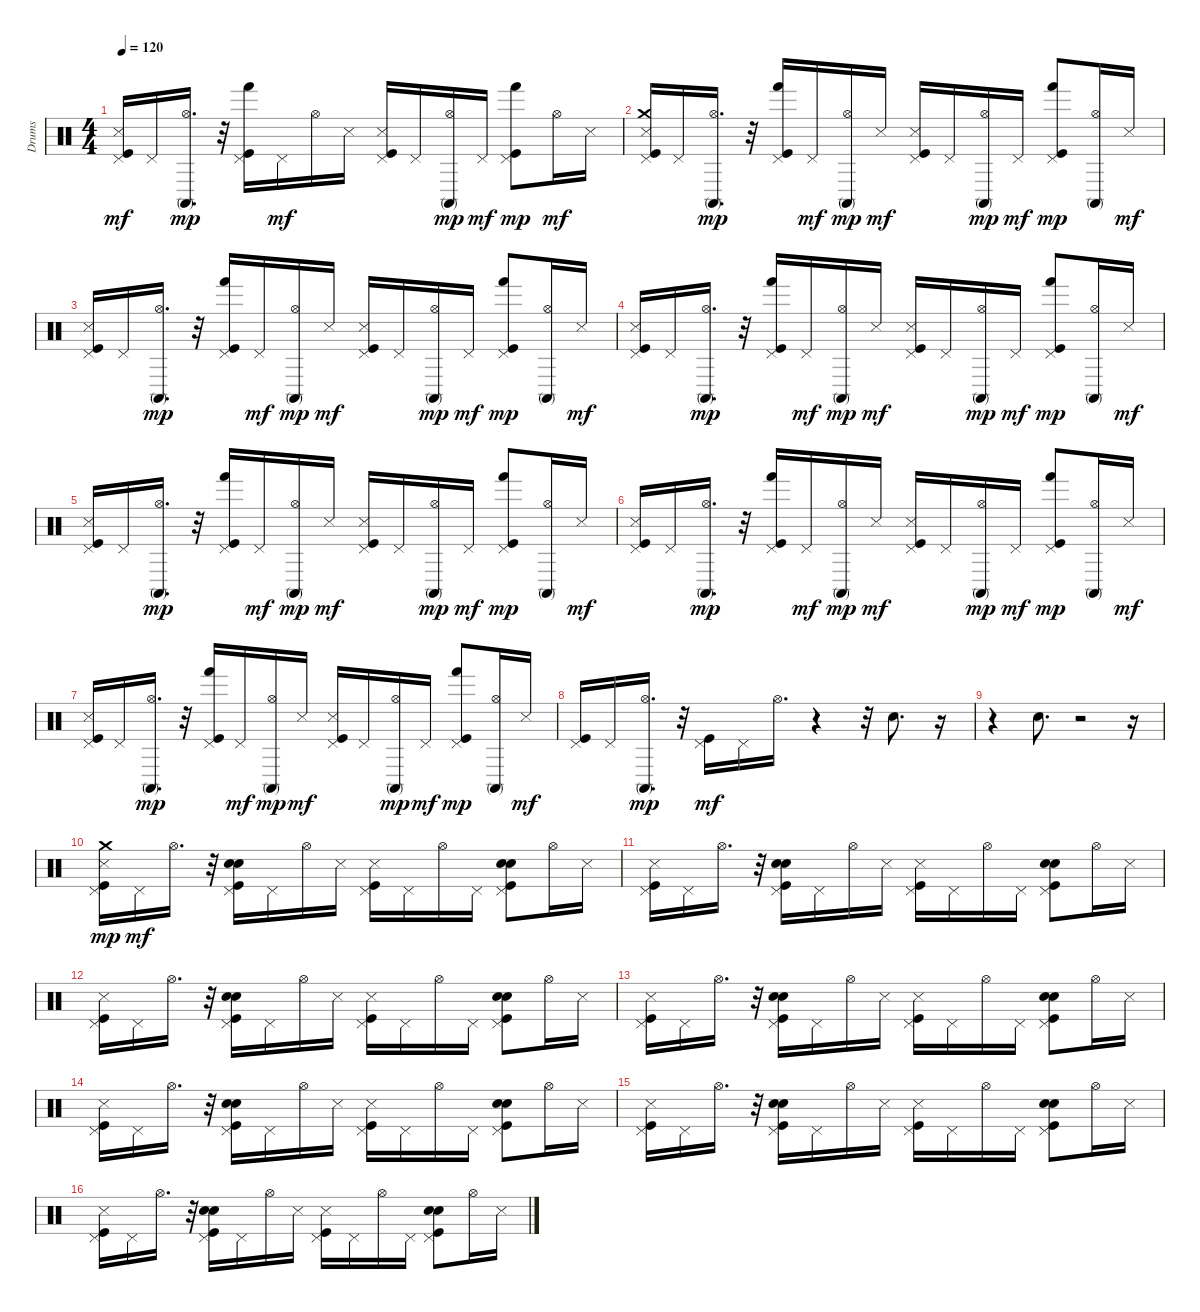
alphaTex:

\track ("Drums" "Drums") {instrument percussion}
\staff {score}
\articulation defaults
\ts (4 4)
\tempo 120
\clef neutral
\ks c
("Kick (hit)" "Snare (side stick) 3" "Pedal Hi-Hat (hit)").16{dy mf} "Pedal Hi-Hat (hit)".16 ("Hi-Hat (open)" "Conga high (mute)").16{d dy mp} r.32 ("Kick (hit)" "Pedal Hi-Hat (hit)" "Hand (hit)").16 "Pedal Hi-Hat (hit)".16{dy mf} "Hi-Hat (open)".16 "Snare (side stick) 3".16 ("Kick (hit)" "Pedal Hi-Hat (hit)" "Snare (side stick) 3").16 "Pedal Hi-Hat (hit)".16 ("Hi-Hat (open)" "Conga high (mute)").16{dy mp} "Pedal Hi-Hat (hit)".16{dy mf} ("Kick (hit)" "Pedal Hi-Hat (hit)" "Hand (hit)").8{dy mp} "Hi-Hat (open)".16{dy mf} "Snare (side stick) 3".16 |
("Pedal Hi-Hat (hit)" "Kick (hit)" "Snare (side stick) 3" "Crash medium (hit)").16 "Pedal Hi-Hat (hit)".16 ("Hi-Hat (open)" "Conga high (mute)").16{d dy mp} r.32 ("Pedal Hi-Hat (hit)" "Kick (hit)" "Hand (hit)").16 "Pedal Hi-Hat (hit)".16{dy mf} ("Hi-Hat (open)" "Conga high (mute)").16{dy mp} "Snare (side stick) 3".16{dy mf} ("Pedal Hi-Hat (hit)" "Snare (side stick) 3" "Kick (hit)").16 "Pedal Hi-Hat (hit)".16 ("Hi-Hat (open)" "Conga high (mute)").16{dy mp} "Pedal Hi-Hat (hit)".16{dy mf} ("Pedal Hi-Hat (hit)" "Kick (hit)" "Hand (hit)").8{dy mp} ("Hi-Hat (open)" "Conga high (mute)").16 "Snare (side stick) 3".16{dy mf} |
("Kick (hit)" "Snare (side stick) 3" "Pedal Hi-Hat (hit)").16 "Pedal Hi-Hat (hit)".16 ("Hi-Hat (open)" "Conga high (mute)").16{d dy mp} r.32 ("Kick (hit)" "Pedal Hi-Hat (hit)" "Hand (hit)").16 "Pedal Hi-Hat (hit)".16{dy mf} ("Hi-Hat (open)" "Conga high (mute)").16{dy mp} "Snare (side stick) 3".16{dy mf} ("Pedal Hi-Hat (hit)" "Snare (side stick) 3" "Kick (hit)").16 "Pedal Hi-Hat (hit)".16 ("Hi-Hat (open)" "Conga high (mute)").16{dy mp} "Pedal Hi-Hat (hit)".16{dy mf} ("Pedal Hi-Hat (hit)" "Kick (hit)" "Hand (hit)").8{dy mp} ("Hi-Hat (open)" "Conga high (mute)").16 "Snare (side stick) 3".16{dy mf} |
("Kick (hit)" "Snare (side stick) 3" "Pedal Hi-Hat (hit)").16 "Pedal Hi-Hat (hit)".16 ("Hi-Hat (open)" "Conga high (mute)").16{d dy mp} r.32 ("Kick (hit)" "Pedal Hi-Hat (hit)" "Hand (hit)").16 "Pedal Hi-Hat (hit)".16{dy mf} ("Hi-Hat (open)" "Conga high (mute)").16{dy mp} "Snare (side stick) 3".16{dy mf} ("Kick (hit)" "Pedal Hi-Hat (hit)" "Snare (side stick) 3").16 "Pedal Hi-Hat (hit)".16 ("Hi-Hat (open)" "Conga high (mute)").16{dy mp} "Pedal Hi-Hat (hit)".16{dy mf} ("Kick (hit)" "Pedal Hi-Hat (hit)" "Hand (hit)").8{dy mp} ("Hi-Hat (open)" "Conga high (mute)").16 "Snare (side stick) 3".16{dy mf} |
("Kick (hit)" "Snare (side stick) 3" "Pedal Hi-Hat (hit)").16 "Pedal Hi-Hat (hit)".16 ("Hi-Hat (open)" "Conga high (mute)").16{d dy mp} r.32 ("Kick (hit)" "Pedal Hi-Hat (hit)" "Hand (hit)").16 "Pedal Hi-Hat (hit)".16{dy mf} ("Hi-Hat (open)" "Conga high (mute)").16{dy mp} "Snare (side stick) 3".16{dy mf} ("Kick (hit)" "Pedal Hi-Hat (hit)" "Snare (side stick) 3").16 "Pedal Hi-Hat (hit)".16 ("Hi-Hat (open)" "Conga high (mute)").16{dy mp} "Pedal Hi-Hat (hit)".16{dy mf} ("Kick (hit)" "Pedal Hi-Hat (hit)" "Hand (hit)").8{dy mp} ("Hi-Hat (open)" "Conga high (mute)").16 "Snare (side stick) 3".16{dy mf} |
("Kick (hit)" "Snare (side stick) 3" "Pedal Hi-Hat (hit)").16 "Pedal Hi-Hat (hit)".16 ("Hi-Hat (open)" "Conga high (mute)").16{d dy mp} r.32 ("Kick (hit)" "Pedal Hi-Hat (hit)" "Hand (hit)").16 "Pedal Hi-Hat (hit)".16{dy mf} ("Hi-Hat (open)" "Conga high (mute)").16{dy mp} "Snare (side stick) 3".16{dy mf} ("Kick (hit)" "Pedal Hi-Hat (hit)" "Snare (side stick) 3").16 "Pedal Hi-Hat (hit)".16 ("Hi-Hat (open)" "Conga high (mute)").16{dy mp} "Pedal Hi-Hat (hit)".16{dy mf} ("Kick (hit)" "Pedal Hi-Hat (hit)" "Hand (hit)").8{dy mp} ("Hi-Hat (open)" "Conga high (mute)").16 "Snare (side stick) 3".16{dy mf} |
("Kick (hit)" "Snare (side stick) 3" "Pedal Hi-Hat (hit)").16 "Pedal Hi-Hat (hit)".16 ("Hi-Hat (open)" "Conga high (mute)").16{d dy mp} r.32 ("Kick (hit)" "Pedal Hi-Hat (hit)" "Hand (hit)").16 "Pedal Hi-Hat (hit)".16{dy mf} ("Hi-Hat (open)" "Conga high (mute)").16{dy mp} "Snare (side stick) 3".16{dy mf} ("Kick (hit)" "Pedal Hi-Hat (hit)" "Snare (side stick) 3").16 "Pedal Hi-Hat (hit)".16 ("Hi-Hat (open)" "Conga high (mute)").16{dy mp} "Pedal Hi-Hat (hit)".16{dy mf} ("Kick (hit)" "Pedal Hi-Hat (hit)" "Hand (hit)").8{dy mp} ("Hi-Hat (open)" "Conga high (mute)").16 "Snare (side stick) 3".16{dy mf} |
("Pedal Hi-Hat (hit)" "Kick (hit)").16 "Pedal Hi-Hat (hit)".16 ("Hi-Hat (open)" "Conga high (mute)").16{d dy mp} r.32 ("Pedal Hi-Hat (hit)" "Kick (hit)").16{dy mf} "Pedal Hi-Hat (hit)".16 "Hi-Hat (open)".16{d} r.4 r.32 "Hand Clap (hit)".8{d} r.16 |
r.4 "Hand Clap (hit)".8{d} r.2 r.16 |
("Snare (side stick) 3" "Pedal Hi-Hat (hit)" "Kick (hit)" "Crash medium (hit)").16{dy mp} "Pedal Hi-Hat (hit)".16{dy mf} "Hi-Hat (open)".16{d} r.32 ("Pedal Hi-Hat (hit)" "Hand Clap (hit)" "Snare (hit) 2" "Kick (hit)").16 "Pedal Hi-Hat (hit)".16 "Hi-Hat (open)".16 "Snare (side stick) 3".16 ("Snare (side stick) 3" "Pedal Hi-Hat (hit)" "Kick (hit)").16 "Pedal Hi-Hat (hit)".16 "Hi-Hat (open)".16 "Pedal Hi-Hat (hit)".16 ("Pedal Hi-Hat (hit)" "Hand Clap (hit)" "Snare (hit) 2" "Kick (hit)").8 "Hi-Hat (open)".16 "Snare (side stick) 3".16 |
("Snare (side stick) 3" "Pedal Hi-Hat (hit)" "Kick (hit)").16 "Pedal Hi-Hat (hit)".16 "Hi-Hat (open)".16{d} r.32 ("Pedal Hi-Hat (hit)" "Hand Clap (hit)" "Snare (hit) 2" "Kick (hit)").16 "Pedal Hi-Hat (hit)".16 "Hi-Hat (open)".16 "Snare (side stick) 3".16 ("Snare (side stick) 3" "Pedal Hi-Hat (hit)" "Kick (hit)").16 "Pedal Hi-Hat (hit)".16 "Hi-Hat (open)".16 "Pedal Hi-Hat (hit)".16 ("Pedal Hi-Hat (hit)" "Hand Clap (hit)" "Snare (hit) 2" "Kick (hit)").8 "Hi-Hat (open)".16 "Snare (side stick) 3".16 |
("Kick (hit)" "Pedal Hi-Hat (hit)" "Snare (side stick) 3").16 "Pedal Hi-Hat (hit)".16 "Hi-Hat (open)".16{d} r.32 ("Kick (hit)" "Snare (hit) 2" "Hand Clap (hit)" "Pedal Hi-Hat (hit)").16 "Pedal Hi-Hat (hit)".16 "Hi-Hat (open)".16 "Snare (side stick) 3".16 ("Kick (hit)" "Pedal Hi-Hat (hit)" "Snare (side stick) 3").16 "Pedal Hi-Hat (hit)".16 "Hi-Hat (open)".16 "Pedal Hi-Hat (hit)".16 ("Kick (hit)" "Snare (hit) 2" "Hand Clap (hit)" "Pedal Hi-Hat (hit)").8 "Hi-Hat (open)".16 "Snare (side stick) 3".16 |
("Kick (hit)" "Snare (side stick) 3" "Pedal Hi-Hat (hit)").16 "Pedal Hi-Hat (hit)".16 "Hi-Hat (open)".16{d} r.32 ("Snare (hit) 2" "Kick (hit)" "Hand Clap (hit)" "Pedal Hi-Hat (hit)").16 "Pedal Hi-Hat (hit)".16 "Hi-Hat (open)".16 "Snare (side stick) 3".16 ("Kick (hit)" "Snare (side stick) 3" "Pedal Hi-Hat (hit)").16 "Pedal Hi-Hat (hit)".16 "Hi-Hat (open)".16 "Pedal Hi-Hat (hit)".16 ("Snare (hit) 2" "Kick (hit)" "Hand Clap (hit)" "Pedal Hi-Hat (hit)").8 "Hi-Hat (open)".16 "Snare (side stick) 3".16 |
("Kick (hit)" "Pedal Hi-Hat (hit)" "Snare (side stick) 3").16 "Pedal Hi-Hat (hit)".16 "Hi-Hat (open)".16{d} r.32 ("Kick (hit)" "Snare (hit) 2" "Hand Clap (hit)" "Pedal Hi-Hat (hit)").16 "Pedal Hi-Hat (hit)".16 "Hi-Hat (open)".16 "Snare (side stick) 3".16 ("Kick (hit)" "Pedal Hi-Hat (hit)" "Snare (side stick) 3").16 "Pedal Hi-Hat (hit)".16 "Hi-Hat (open)".16 "Pedal Hi-Hat (hit)".16 ("Kick (hit)" "Snare (hit) 2" "Hand Clap (hit)" "Pedal Hi-Hat (hit)").8 "Hi-Hat (open)".16 "Snare (side stick) 3".16 |
("Kick (hit)" "Snare (side stick) 3" "Pedal Hi-Hat (hit)").16 "Pedal Hi-Hat (hit)".16 "Hi-Hat (open)".16{d} r.32 ("Snare (hit) 2" "Kick (hit)" "Hand Clap (hit)" "Pedal Hi-Hat (hit)").16 "Pedal Hi-Hat (hit)".16 "Hi-Hat (open)".16 "Snare (side stick) 3".16 ("Kick (hit)" "Snare (side stick) 3" "Pedal Hi-Hat (hit)").16 "Pedal Hi-Hat (hit)".16 "Hi-Hat (open)".16 "Pedal Hi-Hat (hit)".16 ("Snare (hit) 2" "Kick (hit)" "Hand Clap (hit)" "Pedal Hi-Hat (hit)").8 "Hi-Hat (open)".16 "Snare (side stick) 3".16 |
("Pedal Hi-Hat (hit)" "Snare (side stick) 3" "Kick (hit)").16 "Pedal Hi-Hat (hit)".16 "Hi-Hat (open)".16{d} r.32 ("Hand Clap (hit)" "Pedal Hi-Hat (hit)" "Kick (hit)" "Snare (hit) 2").16 "Pedal Hi-Hat (hit)".16 "Hi-Hat (open)".16 "Snare (side stick) 3".16 ("Pedal Hi-Hat (hit)" "Snare (side stick) 3" "Kick (hit)").16 "Pedal Hi-Hat (hit)".16 "Hi-Hat (open)".16 "Pedal Hi-Hat (hit)".16 ("Hand Clap (hit)" "Pedal Hi-Hat (hit)" "Kick (hit)" "Snare (hit) 2").8 "Hi-Hat (open)".16 "Snare (side stick) 3".16
